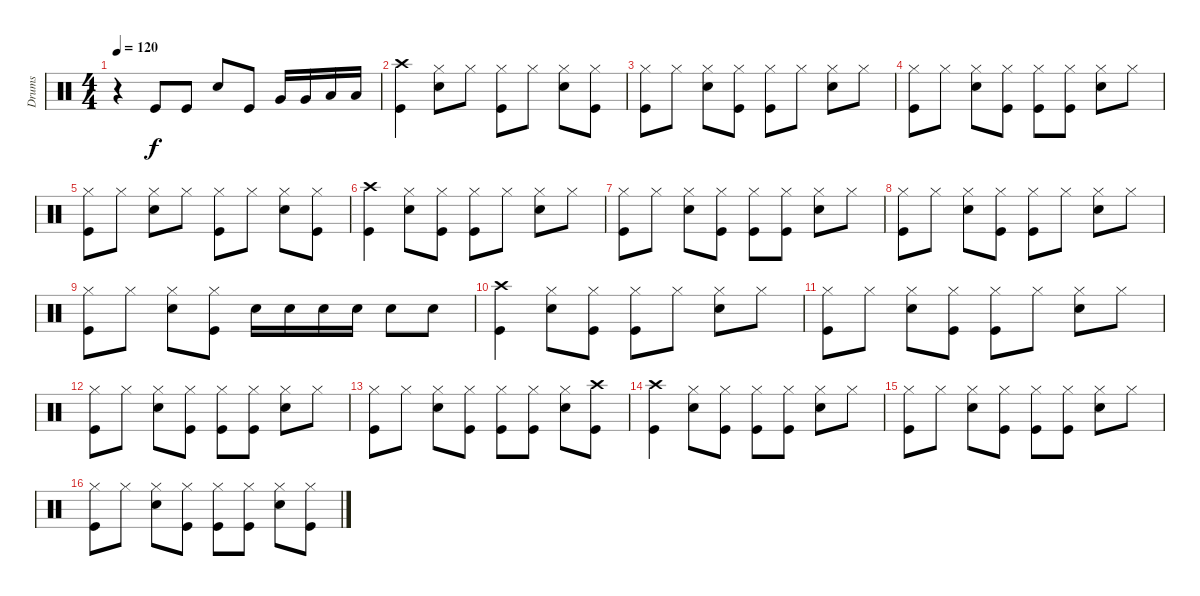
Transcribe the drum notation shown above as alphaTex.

\track ("Drums" "Drums") {instrument percussion}
\staff {score}
\articulation defaults
\ts (4 4)
\tempo 120
\clef neutral
\ks c
r.4{dy f} "Kick (hit)".8 "Kick (hit)".8 "Snare (hit) 2".8 "Kick (hit)".8 "Very Low Tom (hit)".16 "Very Low Tom (hit)".16 "Low Floor Tom (hit)".16 "Low Floor Tom (hit)".16 |
("Crash high (hit)" "Kick (hit)").4 ("Hi-Hat (closed)" "Snare (hit) 2").8 "Hi-Hat (closed)".8 ("Hi-Hat (closed)" "Kick (hit)").8 "Hi-Hat (closed)".8 ("Hi-Hat (closed)" "Snare (hit) 2").8 ("Hi-Hat (closed)" "Kick (hit)").8 |
("Hi-Hat (closed)" "Kick (hit)").8 "Hi-Hat (closed)".8 ("Hi-Hat (closed)" "Snare (hit) 2").8 ("Hi-Hat (closed)" "Kick (hit)").8 ("Hi-Hat (closed)" "Kick (hit)").8 "Hi-Hat (closed)".8 ("Hi-Hat (closed)" "Snare (hit) 2").8 "Hi-Hat (closed)".8 |
("Hi-Hat (closed)" "Kick (hit)").8 "Hi-Hat (closed)".8 ("Hi-Hat (closed)" "Snare (hit) 2").8 ("Hi-Hat (closed)" "Kick (hit)").8 ("Hi-Hat (closed)" "Kick (hit)").8 ("Hi-Hat (closed)" "Kick (hit)").8 ("Hi-Hat (closed)" "Snare (hit) 2").8 "Hi-Hat (closed)".8 |
("Hi-Hat (closed)" "Kick (hit)").8 "Hi-Hat (closed)".8 ("Hi-Hat (closed)" "Snare (hit) 2").8 "Hi-Hat (closed)".8 ("Hi-Hat (closed)" "Kick (hit)").8 "Hi-Hat (closed)".8 ("Hi-Hat (closed)" "Snare (hit) 2").8 ("Hi-Hat (closed)" "Kick (hit)").8 |
("Crash high (hit)" "Kick (hit)").4 ("Hi-Hat (closed)" "Snare (hit) 2").8 ("Hi-Hat (closed)" "Kick (hit)").8 ("Hi-Hat (closed)" "Kick (hit)").8 "Hi-Hat (closed)".8 ("Hi-Hat (closed)" "Snare (hit) 2").8 "Hi-Hat (closed)".8 |
("Hi-Hat (closed)" "Kick (hit)").8 "Hi-Hat (closed)".8 ("Hi-Hat (closed)" "Snare (hit) 2").8 ("Hi-Hat (closed)" "Kick (hit)").8 ("Hi-Hat (closed)" "Kick (hit)").8 ("Hi-Hat (closed)" "Kick (hit)").8 ("Hi-Hat (closed)" "Snare (hit) 2").8 "Hi-Hat (closed)".8 |
("Hi-Hat (closed)" "Kick (hit)").8 "Hi-Hat (closed)".8 ("Hi-Hat (closed)" "Snare (hit) 2").8 ("Hi-Hat (closed)" "Kick (hit)").8 ("Hi-Hat (closed)" "Kick (hit)").8 "Hi-Hat (closed)".8 ("Hi-Hat (closed)" "Snare (hit) 2").8 "Hi-Hat (closed)".8 |
("Hi-Hat (closed)" "Kick (hit)").8 "Hi-Hat (closed)".8 ("Hi-Hat (closed)" "Snare (hit) 2").8 ("Hi-Hat (closed)" "Kick (hit)").8 "Snare (hit) 2".16 "Snare (hit) 2".16 "Snare (hit) 2".16 "Snare (hit) 2".16 "Snare (hit) 2".8 "Snare (hit) 2".8 |
("Crash high (hit)" "Kick (hit)").4 ("Hi-Hat (closed)" "Snare (hit) 2").8 ("Hi-Hat (closed)" "Kick (hit)").8 ("Hi-Hat (closed)" "Kick (hit)").8 "Hi-Hat (closed)".8 ("Hi-Hat (closed)" "Snare (hit) 2").8 "Hi-Hat (closed)".8 |
("Hi-Hat (closed)" "Kick (hit)").8 "Hi-Hat (closed)".8 ("Hi-Hat (closed)" "Snare (hit) 2").8 ("Hi-Hat (closed)" "Kick (hit)").8 ("Hi-Hat (closed)" "Kick (hit)").8 "Hi-Hat (closed)".8 ("Hi-Hat (closed)" "Snare (hit) 2").8 "Hi-Hat (closed)".8 |
("Hi-Hat (closed)" "Kick (hit)").8 "Hi-Hat (closed)".8 ("Hi-Hat (closed)" "Snare (hit) 2").8 ("Hi-Hat (closed)" "Kick (hit)").8 ("Hi-Hat (closed)" "Kick (hit)").8 ("Hi-Hat (closed)" "Kick (hit)").8 ("Hi-Hat (closed)" "Snare (hit) 2").8 "Hi-Hat (closed)".8 |
("Hi-Hat (closed)" "Kick (hit)").8 "Hi-Hat (closed)".8 ("Hi-Hat (closed)" "Snare (hit) 2").8 ("Hi-Hat (closed)" "Kick (hit)").8 ("Hi-Hat (closed)" "Kick (hit)").8 ("Hi-Hat (closed)" "Kick (hit)").8 ("Hi-Hat (closed)" "Snare (hit) 2").8 ("Crash high (hit)" "Kick (hit)").8 |
("Crash high (hit)" "Kick (hit)").4 ("Hi-Hat (closed)" "Snare (hit) 2").8 ("Hi-Hat (closed)" "Kick (hit)").8 ("Hi-Hat (closed)" "Kick (hit)").8 ("Hi-Hat (closed)" "Kick (hit)").8 ("Hi-Hat (closed)" "Snare (hit) 2").8 "Hi-Hat (closed)".8 |
("Hi-Hat (closed)" "Kick (hit)").8 "Hi-Hat (closed)".8 ("Hi-Hat (closed)" "Snare (hit) 2").8 ("Hi-Hat (closed)" "Kick (hit)").8 ("Hi-Hat (closed)" "Kick (hit)").8 ("Hi-Hat (closed)" "Kick (hit)").8 ("Hi-Hat (closed)" "Snare (hit) 2").8 "Hi-Hat (closed)".8 |
("Hi-Hat (closed)" "Kick (hit)").8 "Hi-Hat (closed)".8 ("Hi-Hat (closed)" "Snare (hit) 2").8 ("Hi-Hat (closed)" "Kick (hit)").8 ("Hi-Hat (closed)" "Kick (hit)").8 ("Hi-Hat (closed)" "Kick (hit)").8 ("Hi-Hat (closed)" "Snare (hit) 2").8 ("Hi-Hat (closed)" "Kick (hit)").8
